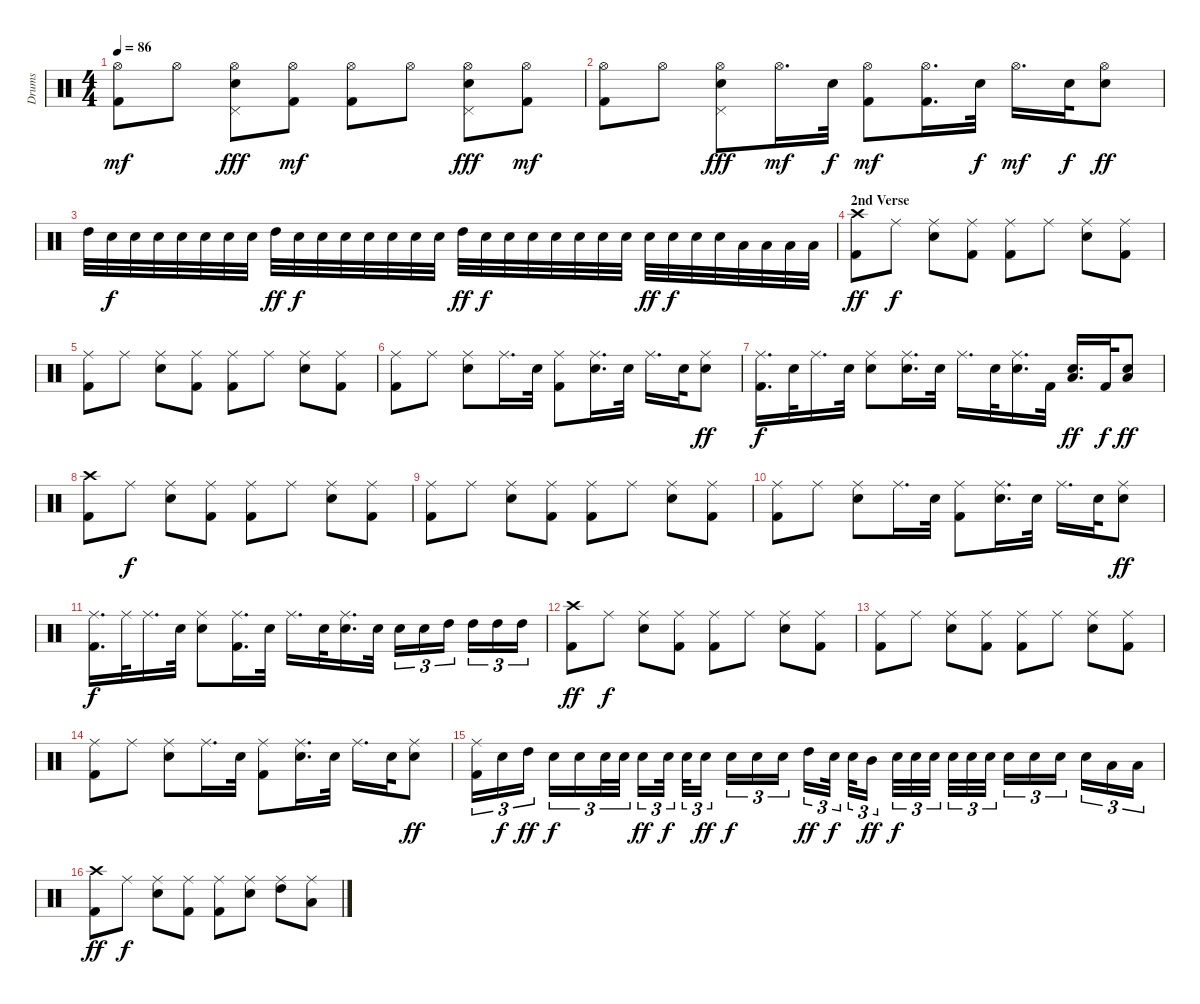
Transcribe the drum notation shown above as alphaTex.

\track ("Drums" "Drums") {instrument percussion}
\staff {score}
\articulation defaults
\ts (4 4)
\tempo 86
\clef neutral
\ks c
("Hi-Hat (open)" "Kick (hit) 2").8{dy mf} "Hi-Hat (open)".8 ("Hi-Hat (open)" "Electric Snare (hit)" "Pedal Hi-Hat (hit)").8{dy fff} ("Hi-Hat (open)" "Kick (hit) 2").8{dy mf} ("Hi-Hat (open)" "Kick (hit) 2").8 "Hi-Hat (open)".8 ("Hi-Hat (open)" "Electric Snare (hit)" "Pedal Hi-Hat (hit)").8{dy fff} ("Hi-Hat (open)" "Kick (hit) 2").8{dy mf} |
("Hi-Hat (open)" "Kick (hit) 2").8 "Hi-Hat (open)".8 ("Hi-Hat (open)" "Electric Snare (hit)" "Pedal Hi-Hat (hit)").8{dy fff} "Hi-Hat (open)".16{d dy mf} "Electric Snare (hit)".32{dy f} ("Hi-Hat (open)" "Kick (hit) 2").8{dy mf} ("Hi-Hat (open)" "Kick (hit) 2").16{d} "Electric Snare (hit)".32{dy f} "Hi-Hat (open)".16{d dy mf} "Electric Snare (hit)".32{dy f} ("Hi-Hat (open)" "Electric Snare (hit)").8{dy ff} |
"High Tom (hit)".32 "Electric Snare (hit)".32{dy f} "Electric Snare (hit)".32 "Electric Snare (hit)".32 "Electric Snare (hit)".32 "Electric Snare (hit)".32 "Electric Snare (hit)".32 "Electric Snare (hit)".32 "High Tom (hit)".32{dy ff} "Electric Snare (hit)".32{dy f} "Electric Snare (hit)".32 "Electric Snare (hit)".32 "Electric Snare (hit)".32 "Electric Snare (hit)".32 "Electric Snare (hit)".32 "Electric Snare (hit)".32 "High Tom (hit)".32{dy ff} "Electric Snare (hit)".32{dy f} "Electric Snare (hit)".32 "Electric Snare (hit)".32 "Electric Snare (hit)".32 "Electric Snare (hit)".32 "Electric Snare (hit)".32 "Electric Snare (hit)".32 "Electric Snare (hit)".32{dy ff} "Electric Snare (hit)".32{dy f} "Electric Snare (hit)".32 "Electric Snare (hit)".32 "Low Tom (hit)".32 "Low Tom (hit)".32 "Low Tom (hit)".32 "Low Tom (hit)".32 |
\section ("" "2nd Verse")
("Crash high (hit)" "Kick (hit) 2").8{dy ff} "Ride (middle)".8{dy f} ("Ride (middle)" "Electric Snare (hit)").8 ("Ride (middle)" "Kick (hit) 2").8 ("Ride (middle)" "Kick (hit) 2").8 "Ride (middle)".8 ("Ride (middle)" "Electric Snare (hit)").8 ("Ride (middle)" "Kick (hit) 2").8 |
("Ride (middle)" "Kick (hit) 2").8 "Ride (middle)".8 ("Ride (middle)" "Electric Snare (hit)").8 ("Ride (middle)" "Kick (hit) 2").8 ("Ride (middle)" "Kick (hit) 2").8 "Ride (middle)".8 ("Ride (middle)" "Electric Snare (hit)").8 ("Ride (middle)" "Kick (hit) 2").8 |
("Ride (middle)" "Kick (hit) 2").8 "Ride (middle)".8 ("Ride (middle)" "Electric Snare (hit)").8 "Ride (middle)".16{d} "Electric Snare (hit)".32 ("Ride (middle)" "Kick (hit) 2").8 ("Ride (middle)" "Electric Snare (hit)").16{d} "Electric Snare (hit)".32 "Ride (middle)".16{d} "Electric Snare (hit)".32 ("Ride (middle)" "Electric Snare (hit)").8{dy ff} |
("Ride (middle)" "Kick (hit) 2").16{d dy f} "Electric Snare (hit)".32 "Ride (middle)".16{d} "Electric Snare (hit)".32 ("Ride (middle)" "Electric Snare (hit)").8 ("Ride (middle)" "Electric Snare (hit)").16{d} "Electric Snare (hit)".32 "Ride (middle)".16{d} "Electric Snare (hit)".32 ("Ride (middle)" "Electric Snare (hit)").16{d} "Kick (hit) 2".32 ("Low Tom (hit)" "Electric Snare (hit)").16{d dy ff} "Kick (hit) 2".32{dy f} ("Low Tom (hit)" "Electric Snare (hit)").8{dy ff} |
("Crash high (hit)" "Kick (hit) 2").8 "Ride (middle)".8{dy f} ("Ride (middle)" "Electric Snare (hit)").8 ("Ride (middle)" "Kick (hit) 2").8 ("Ride (middle)" "Kick (hit) 2").8 "Ride (middle)".8 ("Ride (middle)" "Electric Snare (hit)").8 ("Ride (middle)" "Kick (hit) 2").8 |
("Ride (middle)" "Kick (hit) 2").8 "Ride (middle)".8 ("Ride (middle)" "Electric Snare (hit)").8 ("Ride (middle)" "Kick (hit) 2").8 ("Ride (middle)" "Kick (hit) 2").8 "Ride (middle)".8 ("Ride (middle)" "Electric Snare (hit)").8 ("Ride (middle)" "Kick (hit) 2").8 |
("Ride (middle)" "Kick (hit) 2").8 "Ride (middle)".8 ("Ride (middle)" "Electric Snare (hit)").8 "Ride (middle)".16{d} "Electric Snare (hit)".32 ("Ride (middle)" "Kick (hit) 2").8 ("Ride (middle)" "Electric Snare (hit)").16{d} "Electric Snare (hit)".32 "Ride (middle)".16{d} "Electric Snare (hit)".32 ("Ride (middle)" "Electric Snare (hit)").8{dy ff} |
("Ride (middle)" "Kick (hit) 2").16{d dy f} "Ride (middle)".32 "Ride (middle)".16{d} "Electric Snare (hit)".32 ("Ride (middle)" "Electric Snare (hit)").8 ("Ride (middle)" "Kick (hit) 2").16{d} "Electric Snare (hit)".32 "Ride (middle)".16{d} "Electric Snare (hit)".32 ("Ride (middle)" "Electric Snare (hit)").16{d} "Electric Snare (hit)".32 "Electric Snare (hit)".16{tu (3 2)} "Electric Snare (hit)".16{tu (3 2)} "High Tom (hit)".16{tu (3 2)} "High Tom (hit)".16{tu (3 2)} "High Tom (hit)".16{tu (3 2)} "High Tom (hit)".16{tu (3 2)} |
("Crash high (hit)" "Kick (hit) 2").8{dy ff} "Ride (middle)".8{dy f} ("Ride (middle)" "Electric Snare (hit)").8 ("Ride (middle)" "Kick (hit) 2").8 ("Ride (middle)" "Kick (hit) 2").8 "Ride (middle)".8 ("Ride (middle)" "Electric Snare (hit)").8 ("Ride (middle)" "Kick (hit) 2").8 |
("Ride (middle)" "Kick (hit) 2").8 "Ride (middle)".8 ("Ride (middle)" "Electric Snare (hit)").8 ("Ride (middle)" "Kick (hit) 2").8 ("Ride (middle)" "Kick (hit) 2").8 "Ride (middle)".8 ("Ride (middle)" "Electric Snare (hit)").8 ("Ride (middle)" "Kick (hit) 2").8 |
("Ride (middle)" "Kick (hit) 2").8 "Ride (middle)".8 ("Ride (middle)" "Electric Snare (hit)").8 "Ride (middle)".16{d} "Electric Snare (hit)".32 ("Ride (middle)" "Kick (hit) 2").8 ("Ride (middle)" "Electric Snare (hit)").16{d} "Electric Snare (hit)".32 "Ride (middle)".16{d} "Electric Snare (hit)".32 ("Ride (middle)" "Electric Snare (hit)").8{dy ff} |
("Ride (middle)" "Kick (hit) 2").16{tu (3 2)} "Electric Snare (hit)".16{tu (3 2) dy f} "High Tom (hit)".16{tu (3 2) dy ff} "Electric Snare (hit)".16{tu (3 2) dy f} "Electric Snare (hit)".16{tu (3 2)} "Electric Snare (hit)".32{tu (3 2)} "Electric Snare (hit)".32{tu (3 2)} "Electric Snare (hit)".16{tu (3 2) dy ff} "Electric Snare (hit)".32{tu (3 2) dy f} "Electric Snare (hit)".32{tu (3 2)} "Electric Snare (hit)".16{tu (3 2) dy ff} "Electric Snare (hit)".16{tu (3 2) dy f} "Electric Snare (hit)".16{tu (3 2)} "Electric Snare (hit)".16{tu (3 2)} "High Tom (hit)".16{tu (3 2) dy ff} "Electric Snare (hit)".32{tu (3 2) dy f} "Electric Snare (hit)".32{tu (3 2)} "Mid Tom (hit)".16{tu (3 2) dy ff} "Electric Snare (hit)".32{tu (3 2) dy f} "Electric Snare (hit)".32{tu (3 2)} "Electric Snare (hit)".32{tu (3 2)} "Electric Snare (hit)".32{tu (3 2)} "Electric Snare (hit)".32{tu (3 2)} "Electric Snare (hit)".32{tu (3 2)} "Electric Snare (hit)".16{tu (3 2)} "Electric Snare (hit)".16{tu (3 2)} "Electric Snare (hit)".16{tu (3 2)} "Electric Snare (hit)".16{tu (3 2)} "Low Tom (hit)".16{tu (3 2)} "Low Tom (hit)".16{tu (3 2)} |
("Crash high (hit)" "Kick (hit) 2").8{dy ff} "Ride (middle)".8{dy f} ("Ride (middle)" "Electric Snare (hit)").8 ("Ride (middle)" "Kick (hit) 2").8 ("Ride (middle)" "Kick (hit) 2").8 ("Ride (middle)" "Electric Snare (hit)").8 ("Ride (middle)" "High Tom (hit)").8 ("Ride (middle)" "Low Tom (hit)").8
